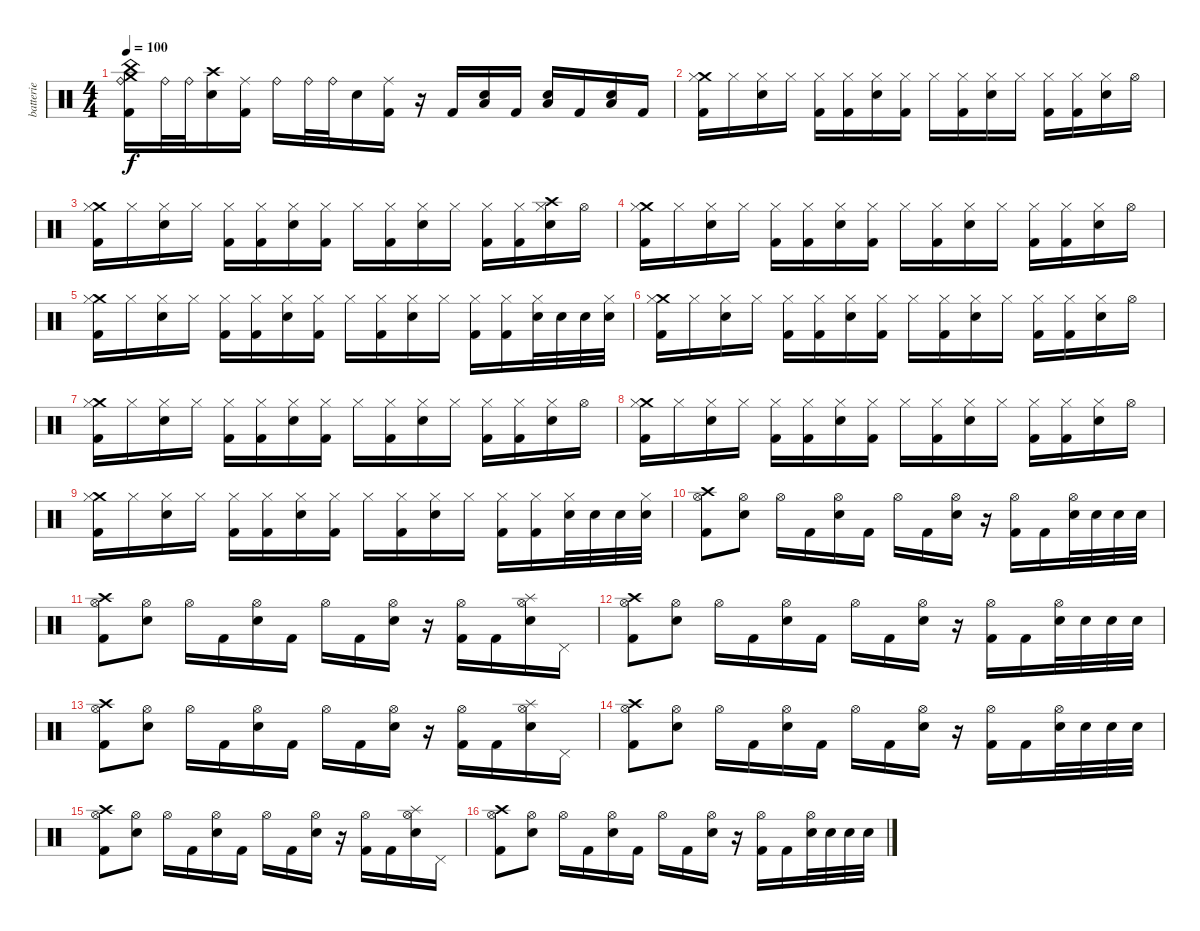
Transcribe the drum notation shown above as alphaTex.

\track ("batterie" "batterie") {instrument percussion}
\staff {score}
\articulation defaults
\ts (4 4)
\tempo 100
\clef neutral
\ks c
("China (hit)" "Crash medium (hit)" "Ride (bell)" "Kick (hit) 2").16{dy f} "Ride (bell)".32 "Ride (bell)".32 ("Crash high (hit)" "Electric Snare (hit)").16 ("Ride (middle)" "Kick (hit) 2").16 "Ride (bell)".16 "Ride (bell)".32 "Ride (bell)".32 "Electric Snare (hit)".16 ("Ride (middle)" "Kick (hit) 2").16 r.16 "Kick (hit) 2".16 ("Low Tom (hit)" "Electric Snare (hit)").16 "Kick (hit) 2".16 ("Low Tom (hit)" "Electric Snare (hit)").16 "Kick (hit) 2".16 ("Low Tom (hit)" "Electric Snare (hit)").16 "Kick (hit) 2".16 |
("Crash medium (hit)" "Hi-Hat (closed)" "Kick (hit) 2").16 "Hi-Hat (closed)".16 ("Hi-Hat (closed)" "Electric Snare (hit)").16 "Hi-Hat (closed)".16 ("Hi-Hat (closed)" "Kick (hit) 2").16 ("Hi-Hat (closed)" "Kick (hit) 2").16 ("Hi-Hat (closed)" "Electric Snare (hit)").16 ("Hi-Hat (closed)" "Kick (hit) 2").16 "Hi-Hat (closed)".16 ("Hi-Hat (closed)" "Kick (hit) 2").16 ("Hi-Hat (closed)" "Electric Snare (hit)").16 "Hi-Hat (closed)".16 ("Hi-Hat (closed)" "Kick (hit) 2").16 ("Hi-Hat (closed)" "Kick (hit) 2").16 ("Hi-Hat (closed)" "Electric Snare (hit)").16 "Hi-Hat (open)".16 |
("Crash medium (hit)" "Hi-Hat (closed)" "Kick (hit) 2").16 "Hi-Hat (closed)".16 ("Hi-Hat (closed)" "Electric Snare (hit)").16 "Hi-Hat (closed)".16 ("Hi-Hat (closed)" "Kick (hit) 2").16 ("Hi-Hat (closed)" "Kick (hit) 2").16 ("Hi-Hat (closed)" "Electric Snare (hit)").16 ("Hi-Hat (closed)" "Kick (hit) 2").16 "Hi-Hat (closed)".16 ("Hi-Hat (closed)" "Kick (hit) 2").16 ("Hi-Hat (closed)" "Electric Snare (hit)").16 "Hi-Hat (closed)".16 ("Hi-Hat (closed)" "Kick (hit) 2").16 ("Hi-Hat (closed)" "Kick (hit) 2").16 ("Crash high (hit)" "Hi-Hat (closed)" "Electric Snare (hit)").16 "Hi-Hat (open)".16 |
("Crash medium (hit)" "Hi-Hat (closed)" "Kick (hit) 2").16 "Hi-Hat (closed)".16 ("Hi-Hat (closed)" "Electric Snare (hit)").16 "Hi-Hat (closed)".16 ("Hi-Hat (closed)" "Kick (hit) 2").16 ("Hi-Hat (closed)" "Kick (hit) 2").16 ("Hi-Hat (closed)" "Electric Snare (hit)").16 ("Hi-Hat (closed)" "Kick (hit) 2").16 "Hi-Hat (closed)".16 ("Hi-Hat (closed)" "Kick (hit) 2").16 ("Hi-Hat (closed)" "Electric Snare (hit)").16 "Hi-Hat (closed)".16 ("Hi-Hat (closed)" "Kick (hit) 2").16 ("Hi-Hat (closed)" "Kick (hit) 2").16 ("Hi-Hat (closed)" "Electric Snare (hit)").16 "Hi-Hat (open)".16 |
("Crash medium (hit)" "Hi-Hat (closed)" "Kick (hit) 2").16 "Hi-Hat (closed)".16 ("Hi-Hat (closed)" "Electric Snare (hit)").16 "Hi-Hat (closed)".16 ("Hi-Hat (closed)" "Kick (hit) 2").16 ("Hi-Hat (closed)" "Kick (hit) 2").16 ("Hi-Hat (closed)" "Electric Snare (hit)").16 ("Hi-Hat (closed)" "Kick (hit) 2").16 "Hi-Hat (closed)".16 ("Hi-Hat (closed)" "Kick (hit) 2").16 ("Hi-Hat (closed)" "Electric Snare (hit)").16 "Hi-Hat (closed)".16 ("Hi-Hat (closed)" "Kick (hit) 2").16 ("Hi-Hat (closed)" "Kick (hit) 2").16 ("Hi-Hat (closed)" "Electric Snare (hit)").32 "Electric Snare (hit)".32 "Electric Snare (hit)".32 ("Hi-Hat (closed)" "Electric Snare (hit)").32 |
("Crash medium (hit)" "Hi-Hat (closed)" "Kick (hit) 2").16 "Hi-Hat (closed)".16 ("Hi-Hat (closed)" "Electric Snare (hit)").16 "Hi-Hat (closed)".16 ("Hi-Hat (closed)" "Kick (hit) 2").16 ("Hi-Hat (closed)" "Kick (hit) 2").16 ("Hi-Hat (closed)" "Electric Snare (hit)").16 ("Hi-Hat (closed)" "Kick (hit) 2").16 "Hi-Hat (closed)".16 ("Hi-Hat (closed)" "Kick (hit) 2").16 ("Hi-Hat (closed)" "Electric Snare (hit)").16 "Hi-Hat (closed)".16 ("Hi-Hat (closed)" "Kick (hit) 2").16 ("Hi-Hat (closed)" "Kick (hit) 2").16 ("Hi-Hat (closed)" "Electric Snare (hit)").16 "Hi-Hat (open)".16 |
("Crash medium (hit)" "Hi-Hat (closed)" "Kick (hit) 2").16 "Hi-Hat (closed)".16 ("Hi-Hat (closed)" "Electric Snare (hit)").16 "Hi-Hat (closed)".16 ("Hi-Hat (closed)" "Kick (hit) 2").16 ("Hi-Hat (closed)" "Kick (hit) 2").16 ("Hi-Hat (closed)" "Electric Snare (hit)").16 ("Hi-Hat (closed)" "Kick (hit) 2").16 "Hi-Hat (closed)".16 ("Hi-Hat (closed)" "Kick (hit) 2").16 ("Hi-Hat (closed)" "Electric Snare (hit)").16 "Hi-Hat (closed)".16 ("Hi-Hat (closed)" "Kick (hit) 2").16 ("Hi-Hat (closed)" "Kick (hit) 2").16 ("Hi-Hat (closed)" "Electric Snare (hit)").16 "Hi-Hat (open)".16 |
("Crash medium (hit)" "Hi-Hat (closed)" "Kick (hit) 2").16 "Hi-Hat (closed)".16 ("Hi-Hat (closed)" "Electric Snare (hit)").16 "Hi-Hat (closed)".16 ("Hi-Hat (closed)" "Kick (hit) 2").16 ("Hi-Hat (closed)" "Kick (hit) 2").16 ("Hi-Hat (closed)" "Electric Snare (hit)").16 ("Hi-Hat (closed)" "Kick (hit) 2").16 "Hi-Hat (closed)".16 ("Hi-Hat (closed)" "Kick (hit) 2").16 ("Hi-Hat (closed)" "Electric Snare (hit)").16 "Hi-Hat (closed)".16 ("Hi-Hat (closed)" "Kick (hit) 2").16 ("Hi-Hat (closed)" "Kick (hit) 2").16 ("Hi-Hat (closed)" "Electric Snare (hit)").16 "Hi-Hat (open)".16 |
("Crash medium (hit)" "Hi-Hat (closed)" "Kick (hit) 2").16 "Hi-Hat (closed)".16 ("Hi-Hat (closed)" "Electric Snare (hit)").16 "Hi-Hat (closed)".16 ("Hi-Hat (closed)" "Kick (hit) 2").16 ("Hi-Hat (closed)" "Kick (hit) 2").16 ("Hi-Hat (closed)" "Electric Snare (hit)").16 ("Hi-Hat (closed)" "Kick (hit) 2").16 "Hi-Hat (closed)".16 ("Hi-Hat (closed)" "Kick (hit) 2").16 ("Hi-Hat (closed)" "Electric Snare (hit)").16 "Hi-Hat (closed)".16 ("Hi-Hat (closed)" "Kick (hit) 2").16 ("Hi-Hat (closed)" "Kick (hit) 2").16 ("Hi-Hat (closed)" "Electric Snare (hit)").32 "Electric Snare (hit)".32 "Electric Snare (hit)".32 ("Hi-Hat (closed)" "Electric Snare (hit)").32 |
("Crash high (hit)" "Hi-Hat (open)" "Kick (hit) 2").8 ("Hi-Hat (open)" "Electric Snare (hit)").8 "Hi-Hat (open)".16 "Kick (hit) 2".16 ("Hi-Hat (open)" "Electric Snare (hit)").16 "Kick (hit) 2".16 "Hi-Hat (open)".16 "Kick (hit) 2".16 ("Hi-Hat (open)" "Electric Snare (hit)").16 r.16 ("Hi-Hat (open)" "Kick (hit) 2").16 "Kick (hit) 2".16 ("Hi-Hat (open)" "Electric Snare (hit)").32 "Electric Snare (hit)".32 "Electric Snare (hit)".32 "Electric Snare (hit)".32 |
("Crash high (hit)" "Hi-Hat (open)" "Kick (hit) 2").8 ("Hi-Hat (open)" "Electric Snare (hit)").8 "Hi-Hat (open)".16 "Kick (hit) 2".16 ("Hi-Hat (open)" "Electric Snare (hit)").16 "Kick (hit) 2".16 "Hi-Hat (open)".16 "Kick (hit) 2".16 ("Hi-Hat (open)" "Electric Snare (hit)").16 r.16 ("Hi-Hat (open)" "Kick (hit) 2").16 "Kick (hit) 2".16 ("Splash (hit)" "Hi-Hat (open)" "Electric Snare (hit)").16 "Pedal Hi-Hat (hit)".16 |
("Crash high (hit)" "Hi-Hat (open)" "Kick (hit) 2").8 ("Hi-Hat (open)" "Electric Snare (hit)").8 "Hi-Hat (open)".16 "Kick (hit) 2".16 ("Hi-Hat (open)" "Electric Snare (hit)").16 "Kick (hit) 2".16 "Hi-Hat (open)".16 "Kick (hit) 2".16 ("Hi-Hat (open)" "Electric Snare (hit)").16 r.16 ("Hi-Hat (open)" "Kick (hit) 2").16 "Kick (hit) 2".16 ("Hi-Hat (open)" "Electric Snare (hit)").32 "Electric Snare (hit)".32 "Electric Snare (hit)".32 "Electric Snare (hit)".32 |
("Crash high (hit)" "Hi-Hat (open)" "Kick (hit) 2").8 ("Hi-Hat (open)" "Electric Snare (hit)").8 "Hi-Hat (open)".16 "Kick (hit) 2".16 ("Hi-Hat (open)" "Electric Snare (hit)").16 "Kick (hit) 2".16 "Hi-Hat (open)".16 "Kick (hit) 2".16 ("Hi-Hat (open)" "Electric Snare (hit)").16 r.16 ("Hi-Hat (open)" "Kick (hit) 2").16 "Kick (hit) 2".16 ("Splash (hit)" "Hi-Hat (open)" "Electric Snare (hit)").16 "Pedal Hi-Hat (hit)".16 |
("Crash high (hit)" "Hi-Hat (open)" "Kick (hit) 2").8 ("Hi-Hat (open)" "Electric Snare (hit)").8 "Hi-Hat (open)".16 "Kick (hit) 2".16 ("Hi-Hat (open)" "Electric Snare (hit)").16 "Kick (hit) 2".16 "Hi-Hat (open)".16 "Kick (hit) 2".16 ("Hi-Hat (open)" "Electric Snare (hit)").16 r.16 ("Hi-Hat (open)" "Kick (hit) 2").16 "Kick (hit) 2".16 ("Hi-Hat (open)" "Electric Snare (hit)").32 "Electric Snare (hit)".32 "Electric Snare (hit)".32 "Electric Snare (hit)".32 |
("Crash high (hit)" "Hi-Hat (open)" "Kick (hit) 2").8 ("Hi-Hat (open)" "Electric Snare (hit)").8 "Hi-Hat (open)".16 "Kick (hit) 2".16 ("Hi-Hat (open)" "Electric Snare (hit)").16 "Kick (hit) 2".16 "Hi-Hat (open)".16 "Kick (hit) 2".16 ("Hi-Hat (open)" "Electric Snare (hit)").16 r.16 ("Hi-Hat (open)" "Kick (hit) 2").16 "Kick (hit) 2".16 ("Splash (hit)" "Hi-Hat (open)" "Electric Snare (hit)").16 "Pedal Hi-Hat (hit)".16 |
("Crash high (hit)" "Hi-Hat (open)" "Kick (hit) 2").8 ("Hi-Hat (open)" "Electric Snare (hit)").8 "Hi-Hat (open)".16 "Kick (hit) 2".16 ("Hi-Hat (open)" "Electric Snare (hit)").16 "Kick (hit) 2".16 "Hi-Hat (open)".16 "Kick (hit) 2".16 ("Hi-Hat (open)" "Electric Snare (hit)").16 r.16 ("Hi-Hat (open)" "Kick (hit) 2").16 "Kick (hit) 2".16 ("Hi-Hat (open)" "Electric Snare (hit)").32 "Electric Snare (hit)".32 "Electric Snare (hit)".32 "Electric Snare (hit)".32
